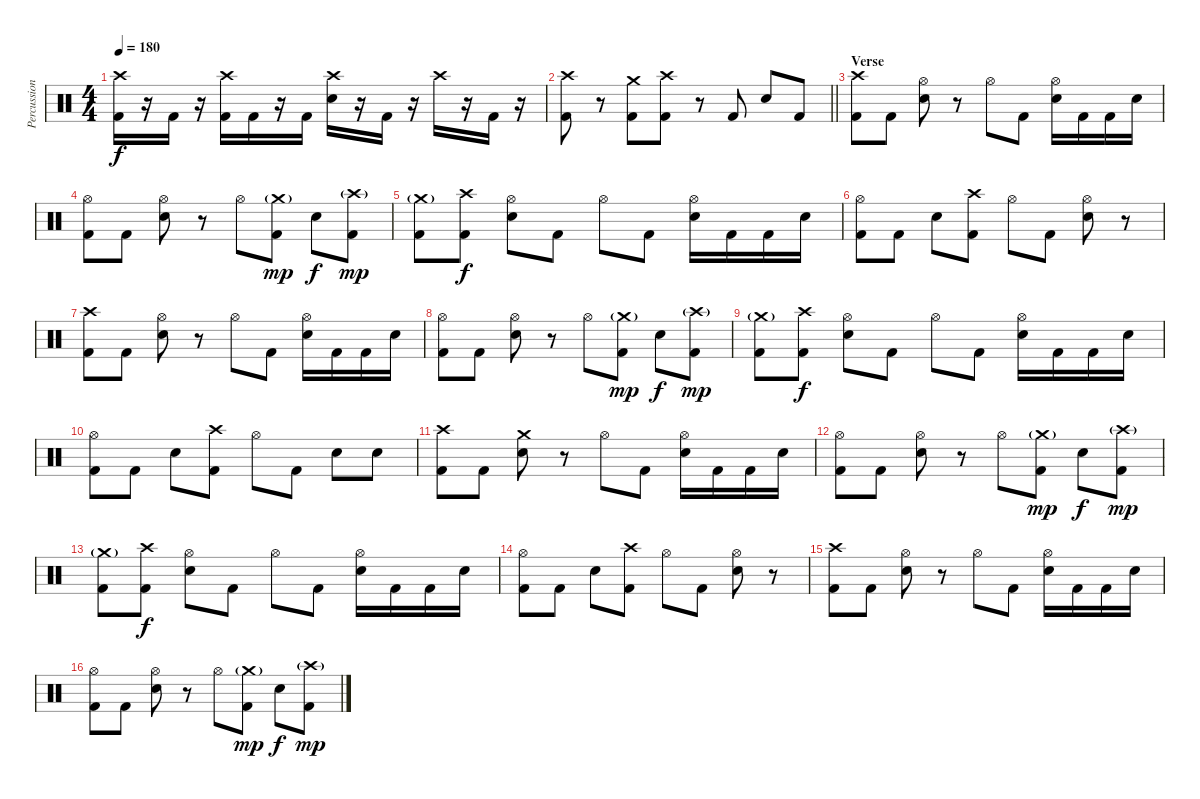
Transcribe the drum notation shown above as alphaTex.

\track ("Percussion" "Percussion") {instrument percussion}
\staff {score}
\articulation defaults
\ts (4 4)
\tempo 180
\clef neutral
\ks c
("Crash high (hit)" "Kick (hit) 2").16{dy f} r.16 "Kick (hit) 2".16 r.16 ("Crash high (hit)" "Kick (hit) 2").16 "Kick (hit) 2".16 r.16 "Kick (hit) 2".16 ("Crash high (hit)" "Electric Snare (hit)").16 r.16 "Kick (hit) 2".16 r.16 "Crash high (hit)".16 r.16 "Kick (hit) 2".16 r.16 |
\barLineRight lightlight
("Crash high (hit)" "Kick (hit) 2").8 r.8 ("Crash medium (hit)" "Kick (hit) 2").8 ("Crash high (hit)" "Kick (hit) 2").8 r.8 "Kick (hit) 2".8 "Electric Snare (hit)".8 "Kick (hit) 2".8 |
\section ("" "Verse")
("Crash high (hit)" "Kick (hit) 2").8 "Kick (hit) 2".8 ("Hi-Hat (open)" "Electric Snare (hit)").8 r.8 "Hi-Hat (open)".8 "Kick (hit) 2".8 ("Hi-Hat (open)" "Electric Snare (hit)").16 "Kick (hit) 2".16 "Kick (hit) 2".16 "Electric Snare (hit)".16 |
("Hi-Hat (open)" "Kick (hit) 2").8 "Kick (hit) 2".8 ("Hi-Hat (open)" "Electric Snare (hit)").8 r.8 "Hi-Hat (open)".8 ("Crash medium (hit)"{g} "Kick (hit) 2").8{dy mp} "Electric Snare (hit)".8{dy f} ("Crash high (hit)"{g} "Kick (hit) 2").8{dy mp} |
("Crash medium (hit)"{g} "Kick (hit) 2").8 ("Crash high (hit)" "Kick (hit) 2").8{dy f} ("Hi-Hat (open)" "Electric Snare (hit)").8 "Kick (hit) 2".8 "Hi-Hat (open)".8 "Kick (hit) 2".8 ("Hi-Hat (open)" "Electric Snare (hit)").16 "Kick (hit) 2".16 "Kick (hit) 2".16 "Electric Snare (hit)".16 |
("Hi-Hat (open)" "Kick (hit) 2").8 "Kick (hit) 2".8 "Electric Snare (hit)".8 ("Crash high (hit)" "Kick (hit) 2").8 "Hi-Hat (open)".8 "Kick (hit) 2".8 ("Hi-Hat (open)" "Electric Snare (hit)").8 r.8 |
("Crash high (hit)" "Kick (hit) 2").8 "Kick (hit) 2".8 ("Hi-Hat (open)" "Electric Snare (hit)").8 r.8 "Hi-Hat (open)".8 "Kick (hit) 2".8 ("Hi-Hat (open)" "Electric Snare (hit)").16 "Kick (hit) 2".16 "Kick (hit) 2".16 "Electric Snare (hit)".16 |
("Hi-Hat (open)" "Kick (hit) 2").8 "Kick (hit) 2".8 ("Hi-Hat (open)" "Electric Snare (hit)").8 r.8 "Hi-Hat (open)".8 ("Crash medium (hit)"{g} "Kick (hit) 2").8{dy mp} "Electric Snare (hit)".8{dy f} ("Crash high (hit)"{g} "Kick (hit) 2").8{dy mp} |
("Crash medium (hit)"{g} "Kick (hit) 2").8 ("Crash high (hit)" "Kick (hit) 2").8{dy f} ("Hi-Hat (open)" "Electric Snare (hit)").8 "Kick (hit) 2".8 "Hi-Hat (open)".8 "Kick (hit) 2".8 ("Hi-Hat (open)" "Electric Snare (hit)").16 "Kick (hit) 2".16 "Kick (hit) 2".16 "Electric Snare (hit)".16 |
("Hi-Hat (open)" "Kick (hit) 2").8 "Kick (hit) 2".8 "Electric Snare (hit)".8 ("Crash high (hit)" "Kick (hit) 2").8 "Hi-Hat (open)".8 "Kick (hit) 2".8 "Electric Snare (hit)".8 "Electric Snare (hit)".8 |
("Crash high (hit)" "Kick (hit) 2").8 "Kick (hit) 2".8 ("Crash medium (hit)" "Electric Snare (hit)").8 r.8 "Hi-Hat (open)".8 "Kick (hit) 2".8 ("Hi-Hat (open)" "Electric Snare (hit)").16 "Kick (hit) 2".16 "Kick (hit) 2".16 "Electric Snare (hit)".16 |
("Hi-Hat (open)" "Kick (hit) 2").8 "Kick (hit) 2".8 ("Hi-Hat (open)" "Electric Snare (hit)").8 r.8 "Hi-Hat (open)".8 ("Crash medium (hit)"{g} "Kick (hit) 2").8{dy mp} "Electric Snare (hit)".8{dy f} ("Crash high (hit)"{g} "Kick (hit) 2").8{dy mp} |
("Crash medium (hit)"{g} "Kick (hit) 2").8 ("Crash high (hit)" "Kick (hit) 2").8{dy f} ("Hi-Hat (open)" "Electric Snare (hit)").8 "Kick (hit) 2".8 "Hi-Hat (open)".8 "Kick (hit) 2".8 ("Hi-Hat (open)" "Electric Snare (hit)").16 "Kick (hit) 2".16 "Kick (hit) 2".16 "Electric Snare (hit)".16 |
("Hi-Hat (open)" "Kick (hit) 2").8 "Kick (hit) 2".8 "Electric Snare (hit)".8 ("Crash high (hit)" "Kick (hit) 2").8 "Hi-Hat (open)".8 "Kick (hit) 2".8 ("Hi-Hat (open)" "Electric Snare (hit)").8 r.8 |
("Crash high (hit)" "Kick (hit) 2").8 "Kick (hit) 2".8 ("Hi-Hat (open)" "Electric Snare (hit)").8 r.8 "Hi-Hat (open)".8 "Kick (hit) 2".8 ("Hi-Hat (open)" "Electric Snare (hit)").16 "Kick (hit) 2".16 "Kick (hit) 2".16 "Electric Snare (hit)".16 |
("Hi-Hat (open)" "Kick (hit) 2").8 "Kick (hit) 2".8 ("Hi-Hat (open)" "Electric Snare (hit)").8 r.8 "Hi-Hat (open)".8 ("Crash medium (hit)"{g} "Kick (hit) 2").8{dy mp} "Electric Snare (hit)".8{dy f} ("Crash high (hit)"{g} "Kick (hit) 2").8{dy mp}
